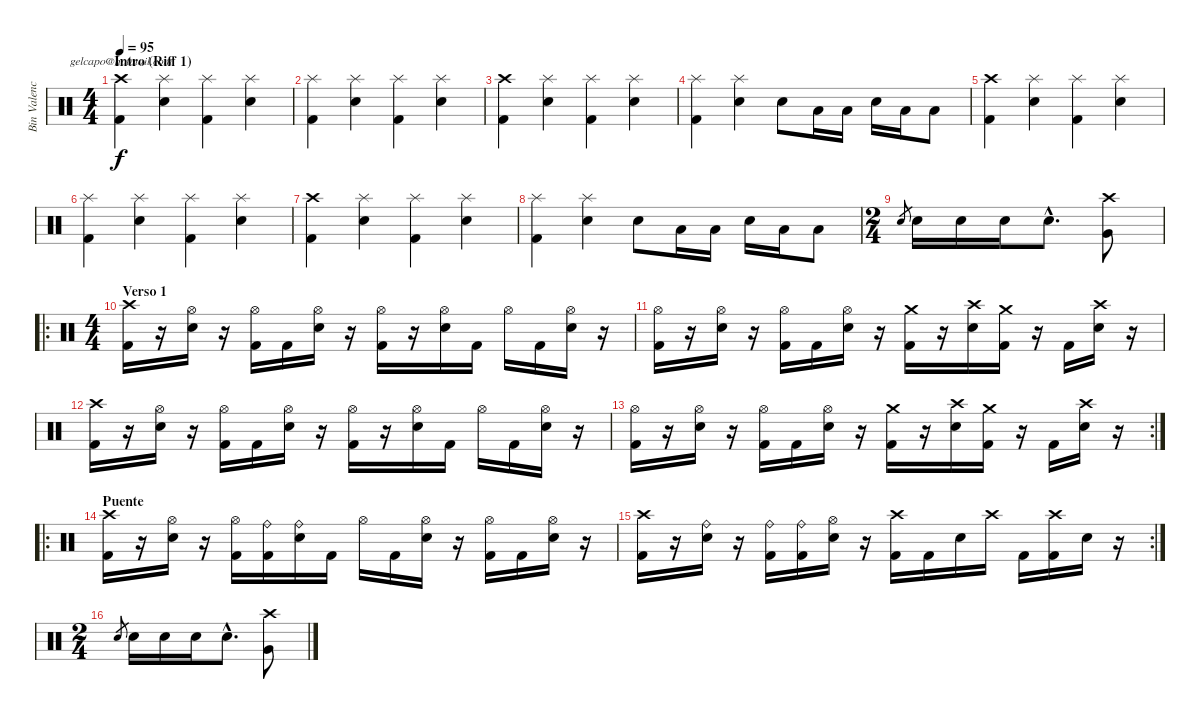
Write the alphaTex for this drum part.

\track ("Bin Valencia (bateria)" "Bin Valenc") {instrument percussion}
\staff {score}
\articulation defaults
\chord ("gelcapo@hotmail.com") {firstfret 0}
\ts (4 4)
\section ("" "Intro (Riff 1)")
\tempo 95
\clef neutral
\ks c
("Crash high (hit)" "Kick (hit) 2").4{ch "gelcapo@hotmail.com" dy f} ("Splash (hit)" "Snare (hit) 2").4 ("Splash (hit)" "Kick (hit) 2").4 ("Splash (hit)" "Snare (hit) 2").4 |
("Splash (hit)" "Kick (hit) 2").4 ("Splash (hit)" "Snare (hit) 2").4 ("Splash (hit)" "Kick (hit) 2").4 ("Splash (hit)" "Snare (hit) 2").4 |
("Crash high (hit)" "Kick (hit) 2").4 ("Splash (hit)" "Snare (hit) 2").4 ("Splash (hit)" "Kick (hit) 2").4 ("Splash (hit)" "Snare (hit) 2").4 |
("Splash (hit)" "Kick (hit) 2").4 ("Splash (hit)" "Snare (hit) 2").4 "Snare (hit) 2".8 "Low Floor Tom (hit)".16 "Low Floor Tom (hit)".16 "Snare (hit) 2".16 "Low Floor Tom (hit)".16 "Low Floor Tom (hit)".8 |
("Crash high (hit)" "Kick (hit) 2").4 ("Splash (hit)" "Snare (hit) 2").4 ("Splash (hit)" "Kick (hit) 2").4 ("Splash (hit)" "Snare (hit) 2").4 |
("Splash (hit)" "Kick (hit) 2").4 ("Splash (hit)" "Snare (hit) 2").4 ("Splash (hit)" "Kick (hit) 2").4 ("Splash (hit)" "Snare (hit) 2").4 |
("Crash high (hit)" "Kick (hit) 2").4 ("Splash (hit)" "Snare (hit) 2").4 ("Splash (hit)" "Kick (hit) 2").4 ("Splash (hit)" "Snare (hit) 2").4 |
("Splash (hit)" "Kick (hit) 2").4 ("Splash (hit)" "Snare (hit) 2").4 "Snare (hit) 2".8 "Low Floor Tom (hit)".16 "Low Floor Tom (hit)".16 "Snare (hit) 2".16 "Low Floor Tom (hit)".16 "Low Floor Tom (hit)".8 |
\ts (2 4)
"Snare (hit) 2".8{gr} "Snare (hit) 2".16 "Snare (hit) 2".16 "Snare (hit) 2".16 "Snare (hit) 2"{hac}.8{d} ("Crash high (hit)" "Very Low Tom (hit)").8 |
\ro
\ts (4 4)
\section ("" "Verso 1")
("Crash high (hit)" "Kick (hit) 2").16 r.16 ("Hi-Hat (open)" "Snare (hit) 2").16 r.16 ("Hi-Hat (open)" "Kick (hit) 2").16 "Kick (hit) 2".16 ("Hi-Hat (open)" "Snare (hit) 2").16 r.16 ("Hi-Hat (open)" "Kick (hit) 2").16 r.16 ("Hi-Hat (open)" "Snare (hit) 2").16 "Kick (hit) 2".16 "Hi-Hat (open)".16 "Kick (hit) 2".16 ("Hi-Hat (open)" "Snare (hit) 2").16 r.16 |
("Hi-Hat (open)" "Kick (hit) 2").16 r.16 ("Hi-Hat (open)" "Snare (hit) 2").16 r.16 ("Hi-Hat (open)" "Kick (hit) 2").16 "Kick (hit) 2".16 ("Hi-Hat (open)" "Snare (hit) 2").16 r.16 ("Crash medium (hit)" "Kick (hit) 2").16 r.16 ("Crash high (hit)" "Snare (hit) 2").16 ("Crash medium (hit)" "Kick (hit) 2").16 r.16 "Kick (hit) 2".16 ("Crash high (hit)" "Snare (hit) 2").16 r.16 |
("Crash high (hit)" "Kick (hit) 2").16 r.16 ("Hi-Hat (open)" "Snare (hit) 2").16 r.16 ("Hi-Hat (open)" "Kick (hit) 2").16 "Kick (hit) 2".16 ("Hi-Hat (open)" "Snare (hit) 2").16 r.16 ("Hi-Hat (open)" "Kick (hit) 2").16 r.16 ("Hi-Hat (open)" "Snare (hit) 2").16 "Kick (hit) 2".16 "Hi-Hat (open)".16 "Kick (hit) 2".16 ("Hi-Hat (open)" "Snare (hit) 2").16 r.16 |
\rc 2
("Hi-Hat (open)" "Kick (hit) 2").16 r.16 ("Hi-Hat (open)" "Snare (hit) 2").16 r.16 ("Hi-Hat (open)" "Kick (hit) 2").16 "Kick (hit) 2".16 ("Hi-Hat (open)" "Snare (hit) 2").16 r.16 ("Crash medium (hit)" "Kick (hit) 2").16 r.16 ("Crash high (hit)" "Snare (hit) 2").16 ("Crash medium (hit)" "Kick (hit) 2").16 r.16 "Kick (hit) 2".16 ("Crash high (hit)" "Snare (hit) 2").16 r.16 |
\ro
\section ("" "Puente")
("Crash high (hit)" "Kick (hit) 2").16 r.16 ("Hi-Hat (open)" "Snare (hit) 2").16 r.16 ("Hi-Hat (open)" "Kick (hit) 2").16 ("Ride (bell)" "Kick (hit) 2").16 ("Ride (bell)" "Snare (hit) 2").16 "Kick (hit) 2".16 "Hi-Hat (open)".16 "Kick (hit) 2".16 ("Hi-Hat (open)" "Snare (hit) 2").16 r.16 ("Hi-Hat (open)" "Kick (hit) 2").16 "Kick (hit) 2".16 ("Hi-Hat (open)" "Snare (hit) 2").16 r.16 |
\rc 2
("Crash high (hit)" "Kick (hit) 2").16 r.16 ("Ride (bell)" "Snare (hit) 2").16 r.16 ("Ride (bell)" "Kick (hit) 2").16 ("Ride (bell)" "Kick (hit) 2").16 ("Hi-Hat (open)" "Snare (hit) 2").16 r.16 ("Crash high (hit)" "Kick (hit) 2").16 "Kick (hit) 2".16 "Snare (hit) 2".16 "Crash high (hit)".16 "Kick (hit) 2".16 ("Crash high (hit)" "Kick (hit) 2").16 "Snare (hit) 2".16 r.16 |
\ts (2 4)
"Snare (hit) 2".8{gr} "Snare (hit) 2".16 "Snare (hit) 2".16 "Snare (hit) 2".16 "Snare (hit) 2"{hac}.8{d} ("Crash high (hit)" "Very Low Tom (hit)").8
